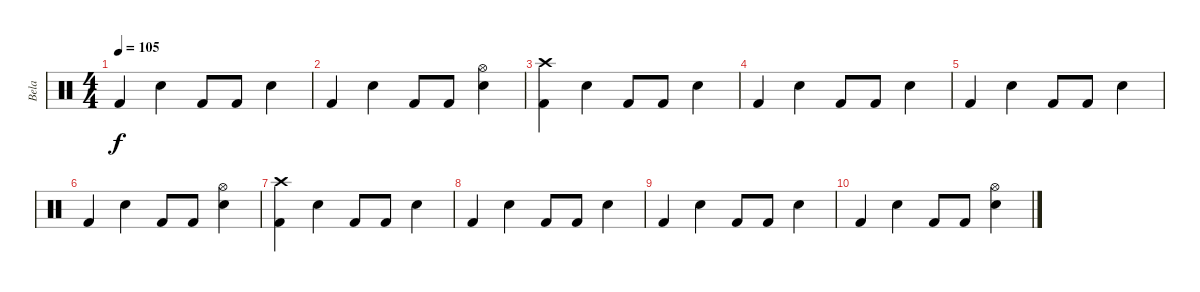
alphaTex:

\track ("Bela" "Bela") {instrument percussion}
\staff {score}
\articulation defaults
\ts (4 4)
\tempo 105
\clef neutral
\ks c "Kick (hit) 2".4{dy f} "Snare (hit) 2".4 "Kick (hit) 2".8 "Kick (hit) 2".8 "Snare (hit) 2".4
|
"Kick (hit) 2".4 "Snare (hit) 2".4 "Kick (hit) 2".8 "Kick (hit) 2".8 ("Hi-Hat (open)" "Snare (hit) 2").4 |
("Crash high (hit)" "Kick (hit) 2").4 "Snare (hit) 2".4 "Kick (hit) 2".8 "Kick (hit) 2".8 "Snare (hit) 2".4 |
"Kick (hit) 2".4 "Snare (hit) 2".4 "Kick (hit) 2".8 "Kick (hit) 2".8 "Snare (hit) 2".4 |
"Kick (hit) 2".4 "Snare (hit) 2".4 "Kick (hit) 2".8 "Kick (hit) 2".8 "Snare (hit) 2".4 |
"Kick (hit) 2".4 "Snare (hit) 2".4 "Kick (hit) 2".8 "Kick (hit) 2".8 ("Hi-Hat (open)" "Snare (hit) 2").4 |
("Crash high (hit)" "Kick (hit) 2").4 "Snare (hit) 2".4 "Kick (hit) 2".8 "Kick (hit) 2".8 "Snare (hit) 2".4 |
"Kick (hit) 2".4 "Snare (hit) 2".4 "Kick (hit) 2".8 "Kick (hit) 2".8 "Snare (hit) 2".4 |
"Kick (hit) 2".4 "Snare (hit) 2".4 "Kick (hit) 2".8 "Kick (hit) 2".8 "Snare (hit) 2".4 |
"Kick (hit) 2".4 "Snare (hit) 2".4 "Kick (hit) 2".8 "Kick (hit) 2".8 ("Hi-Hat (open)" "Snare (hit) 2").4
